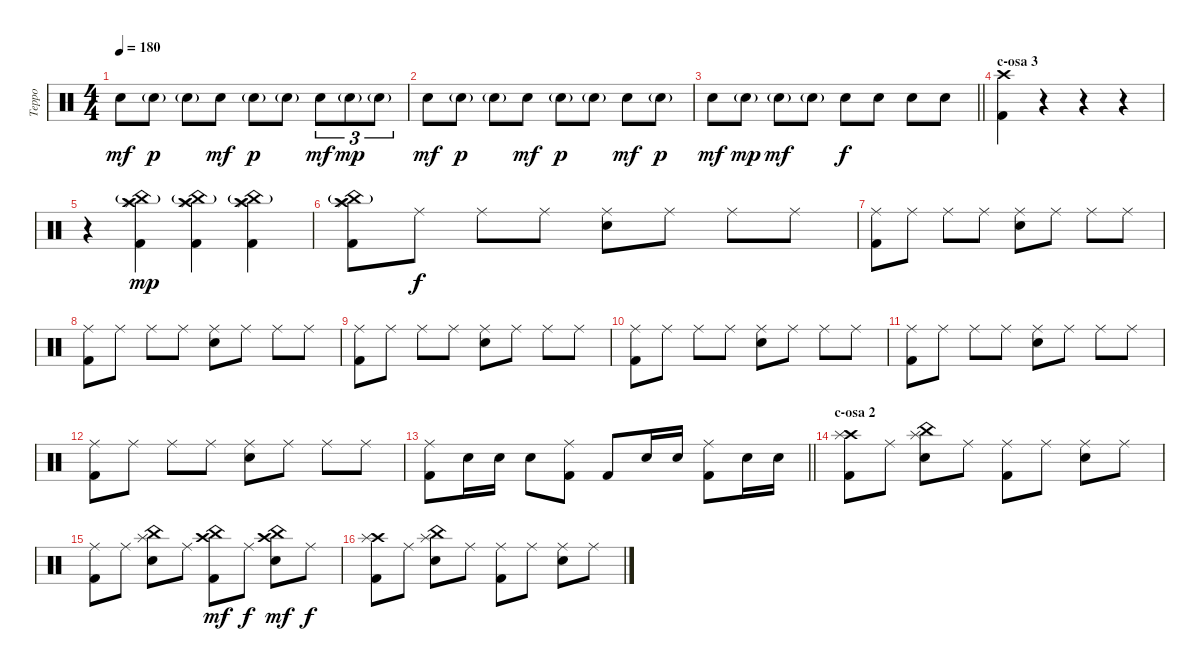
\track ("Teppo" "Teppo") {instrument percussion}
\staff {score}
\articulation defaults
\ts (4 4)
\tempo 180
\clef neutral
\ks c "Electric Snare (hit)".8{dy mf} "Electric Snare (hit)"{g}.8{dy p} "Electric Snare (hit)"{g}.8 "Electric Snare (hit)".8{dy mf} "Electric Snare (hit)"{g}.8{dy p} "Electric Snare (hit)"{g}.8 "Electric Snare (hit)".8{tu (3 2) dy mf} "Electric Snare (hit)"{g}.8{tu (3 2) dy mp} "Electric Snare (hit)"{g}.8{tu (3 2)}
|
"Electric Snare (hit)".8{dy mf} "Electric Snare (hit)"{g}.8{dy p} "Electric Snare (hit)"{g}.8 "Electric Snare (hit)".8{dy mf} "Electric Snare (hit)"{g}.8{dy p} "Electric Snare (hit)"{g}.8 "Electric Snare (hit)".8{dy mf} "Electric Snare (hit)"{g}.8{dy p} |
\barLineRight lightlight "Electric Snare (hit)".8{dy mf} "Electric Snare (hit)"{g}.8{dy mp} "Electric Snare (hit)"{g}.8{dy mf} "Electric Snare (hit)"{g}.8 "Electric Snare (hit)".8{dy f} "Electric Snare (hit)".8 "Electric Snare (hit)".8 "Electric Snare (hit)".8
|
\section ("" "c-osa 3")
("Crash high (hit)" "Kick (hit) 2").4 r.4 r.4 r.4 |
r.4 ("Crash high (hit)" "Splash (hit)" "China (hit)"{g} "Kick (hit) 2").4{dy mp} ("Crash high (hit)" "Splash (hit)" "China (hit)"{g} "Kick (hit) 2").4 ("Crash high (hit)" "Splash (hit)" "China (hit)"{g} "Kick (hit) 2").4 |
("Crash high (hit)" "Splash (hit)" "China (hit)"{g} "Kick (hit) 2").8 "Ride (middle)".8{dy f} "Ride (middle)".8 "Ride (middle)".8 ("Ride (middle)" "Electric Snare (hit)").8 "Ride (middle)".8 "Ride (middle)".8 "Ride (middle)".8 |
("Ride (middle)" "Kick (hit) 2").8 "Ride (middle)".8 "Ride (middle)".8 "Ride (middle)".8 ("Ride (middle)" "Electric Snare (hit)").8 "Ride (middle)".8 "Ride (middle)".8 "Ride (middle)".8 |
("Ride (middle)" "Kick (hit) 2").8 "Ride (middle)".8 "Ride (middle)".8 "Ride (middle)".8 ("Ride (middle)" "Electric Snare (hit)").8 "Ride (middle)".8 "Ride (middle)".8 "Ride (middle)".8 |
("Ride (middle)" "Kick (hit) 2").8 "Ride (middle)".8 "Ride (middle)".8 "Ride (middle)".8 ("Ride (middle)" "Electric Snare (hit)").8 "Ride (middle)".8 "Ride (middle)".8 "Ride (middle)".8 |
("Ride (middle)" "Kick (hit) 2").8 "Ride (middle)".8 "Ride (middle)".8 "Ride (middle)".8 ("Ride (middle)" "Electric Snare (hit)").8 "Ride (middle)".8 "Ride (middle)".8 "Ride (middle)".8 |
("Ride (middle)" "Kick (hit) 2").8 "Ride (middle)".8 "Ride (middle)".8 "Ride (middle)".8 ("Ride (middle)" "Electric Snare (hit)").8 "Ride (middle)".8 "Ride (middle)".8 "Ride (middle)".8 |
("Ride (middle)" "Kick (hit) 2").8 "Ride (middle)".8 "Ride (middle)".8 "Ride (middle)".8 ("Ride (middle)" "Electric Snare (hit)").8 "Ride (middle)".8 "Ride (middle)".8 "Ride (middle)".8 |
\barLineRight lightlight
("Ride (middle)" "Kick (hit) 2").8 "Electric Snare (hit)".16 "Electric Snare (hit)".16 "Electric Snare (hit)".8 ("Ride (middle)" "Kick (hit) 2").8 "Kick (hit) 2".8 "Electric Snare (hit)".16 "Electric Snare (hit)".16 ("Ride (middle)" "Kick (hit) 2").8 "Electric Snare (hit)".16 "Electric Snare (hit)".16 |
\section ("" "c-osa 2")
("Crash high (hit)" "Splash (hit)" "Kick (hit) 2").8 "Ride (middle)".8 ("China (hit)" "Splash (hit)" "Electric Snare (hit)").8 "Ride (middle)".8 ("Ride (middle)" "Kick (hit) 2").8 "Ride (middle)".8 ("Ride (middle)" "Electric Snare (hit)").8 "Ride (middle)".8 |
("Ride (middle)" "Kick (hit) 2").8 "Ride (middle)".8 ("China (hit)" "Splash (hit)" "Electric Snare (hit)").8 "Ride (middle)".8 ("China (hit)" "Crash high (hit)" "Kick (hit) 2").8{dy mf} "Ride (middle)".8{dy f} ("China (hit)" "Crash high (hit)" "Electric Snare (hit)").8{dy mf} "Ride (middle)".8{dy f} |
("Crash high (hit)" "Splash (hit)" "Kick (hit) 2").8 "Ride (middle)".8 ("China (hit)" "Splash (hit)" "Electric Snare (hit)").8 "Ride (middle)".8 ("Ride (middle)" "Kick (hit) 2").8 "Ride (middle)".8 ("Ride (middle)" "Electric Snare (hit)").8 "Ride (middle)".8
